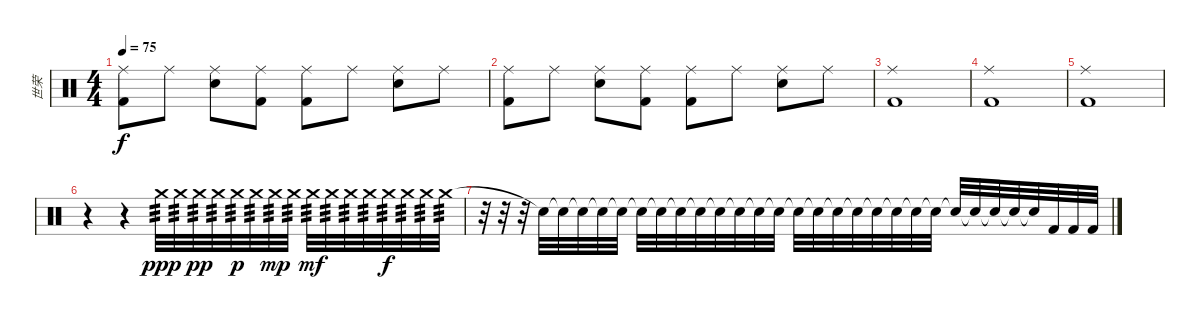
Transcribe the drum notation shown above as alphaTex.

\track ("世荣" "世荣") {instrument percussion}
\staff {score}
\articulation defaults
\ts (4 4)
\tempo 75
\clef neutral
\ks c
("Ride (middle)" "Kick (hit) 2").8{dy f} "Ride (middle)".8 ("Ride (middle)" "Electric Snare (hit)").8 ("Ride (middle)" "Kick (hit) 2").8 ("Ride (middle)" "Kick (hit) 2").8 "Ride (middle)".8 ("Ride (middle)" "Electric Snare (hit)").8 "Ride (middle)".8 |
("Ride (middle)" "Kick (hit) 2").8 "Ride (middle)".8 ("Ride (middle)" "Electric Snare (hit)").8 ("Ride (middle)" "Kick (hit) 2").8 ("Ride (middle)" "Kick (hit) 2").8 "Ride (middle)".8 ("Ride (middle)" "Electric Snare (hit)").8 "Ride (middle)".8 |
("Ride (middle)" "Kick (hit) 2").1 |
("Ride (middle)" "Kick (hit) 2").1 |
("Ride (middle)" "Kick (hit) 2").1 |
r.4 r.4 "Crash medium (hit)".32{tp 3 dy ppp} "Crash medium (hit)".32{tp 3} "Crash medium (hit)".32{tp 3 dy pp} "Crash medium (hit)".32{tp 3} "Crash medium (hit)".32{tp 3 dy p} "Crash medium (hit)".32{tp 3} "Crash medium (hit)".32{tp 3 dy mp} "Crash medium (hit)".32{tp 3} "Crash medium (hit)".32{tp 3 dy mf} "Crash medium (hit)".32{tp 3} "Crash medium (hit)".32{tp 3} "Crash medium (hit)".32{tp 3} "Crash medium (hit)".32{tp 3 dy f} "Crash medium (hit)".32{tp 3} "Crash medium (hit)".32{tp 3} "Crash medium (hit)".32{tp 3} |
r.32 r.32 r.32 "Snare (hit)"{t}.32 "Snare (hit)"{t}.32 "Snare (hit)"{t}.32 "Snare (hit)"{t}.32 "Snare (hit)"{t}.32 "Snare (hit)"{t}.32 "Snare (hit)"{t}.32 "Snare (hit)"{t}.32 "Snare (hit)"{t}.32 "Snare (hit)"{t}.32 "Snare (hit)"{t}.32 "Snare (hit)"{t}.32 "Snare (hit)"{t}.32 "Snare (hit)"{t}.32 "Snare (hit)"{t}.32 "Snare (hit)"{t}.32 "Snare (hit)"{t}.32 "Snare (hit)"{t}.32 "Snare (hit)"{t}.32 "Snare (hit)"{t}.32 "Snare (hit)"{t}.32 "Snare (hit)"{t}.32 "Snare (hit)"{t}.32 "Snare (hit)"{t}.32 "Snare (hit)"{t}.32 "Snare (hit)"{t}.32 "Kick (hit) 2".32 "Kick (hit) 2".32 "Kick (hit) 2".32
